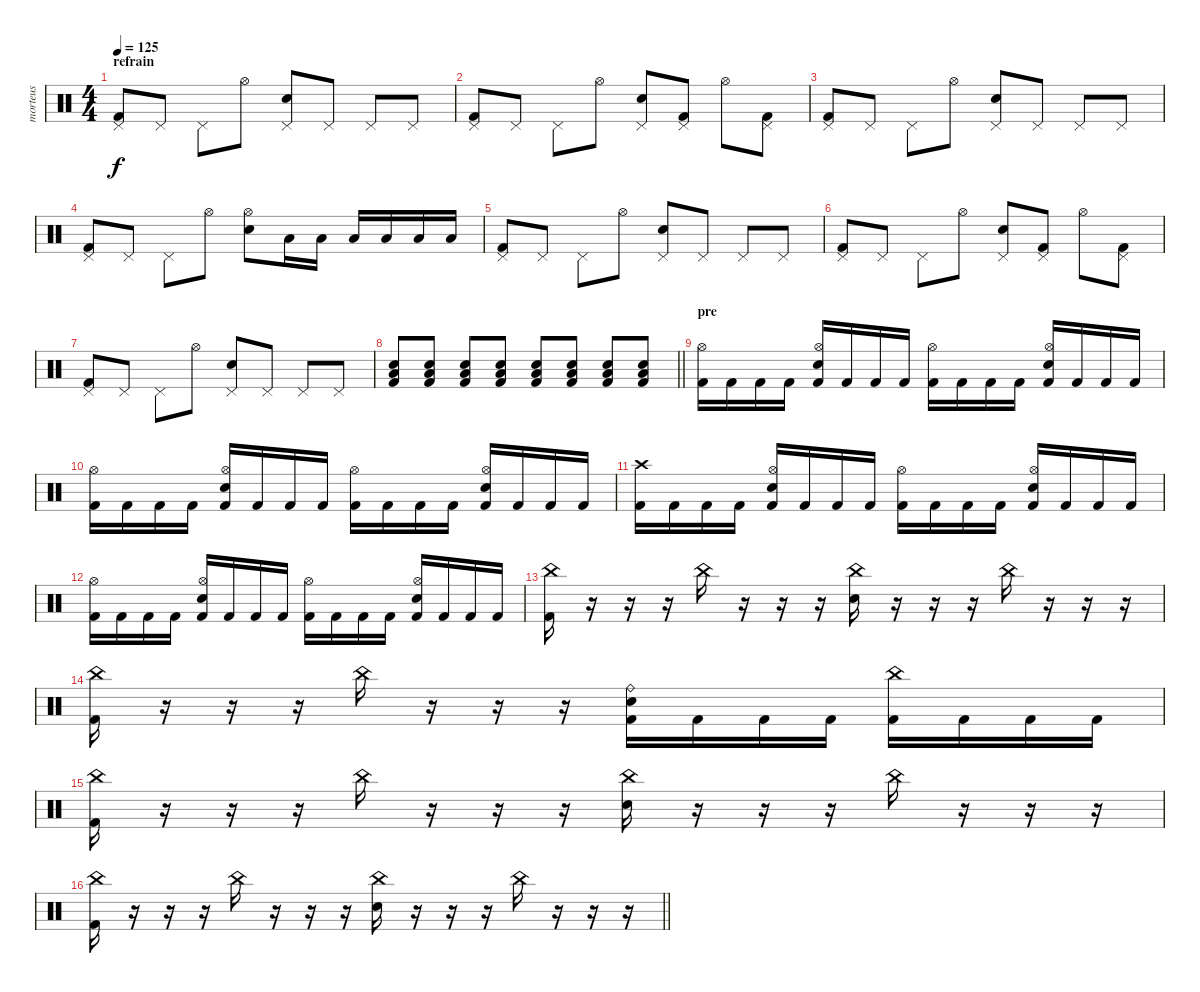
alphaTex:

\track ("morteus" "morteus") {instrument percussion}
\staff {score}
\articulation defaults
\ts (4 4)
\section ("" "refrain")
\tempo 125
\clef neutral
\ks c
("Pedal Hi-Hat (hit)" "Kick (hit) 2").8{dy f} "Pedal Hi-Hat (hit)".8 "Pedal Hi-Hat (hit)".8 "Hi-Hat (open)".8 ("Pedal Hi-Hat (hit)" "Electric Snare (hit)").8 "Pedal Hi-Hat (hit)".8 "Pedal Hi-Hat (hit)".8 "Pedal Hi-Hat (hit)".8 |
("Pedal Hi-Hat (hit)" "Kick (hit) 2").8 "Pedal Hi-Hat (hit)".8 "Pedal Hi-Hat (hit)".8 "Hi-Hat (open)".8 ("Pedal Hi-Hat (hit)" "Electric Snare (hit)").8 ("Pedal Hi-Hat (hit)" "Kick (hit) 2").8 "Hi-Hat (open)".8 ("Pedal Hi-Hat (hit)" "Kick (hit) 2").8 |
("Pedal Hi-Hat (hit)" "Kick (hit) 2").8 "Pedal Hi-Hat (hit)".8 "Pedal Hi-Hat (hit)".8 "Hi-Hat (open)".8 ("Pedal Hi-Hat (hit)" "Electric Snare (hit)").8 "Pedal Hi-Hat (hit)".8 "Pedal Hi-Hat (hit)".8 "Pedal Hi-Hat (hit)".8 |
("Pedal Hi-Hat (hit)" "Kick (hit) 2").8 "Pedal Hi-Hat (hit)".8 "Pedal Hi-Hat (hit)".8 "Hi-Hat (open)".8 ("Hi-Hat (open)" "Electric Snare (hit)").8 "Low Tom (hit)".16 "Low Tom (hit)".16 "Low Tom (hit)".16 "Low Tom (hit)".16 "Low Floor Tom (hit)".16 "Low Floor Tom (hit)".16 |
("Pedal Hi-Hat (hit)" "Kick (hit) 2").8 "Pedal Hi-Hat (hit)".8 "Pedal Hi-Hat (hit)".8 "Hi-Hat (open)".8 ("Pedal Hi-Hat (hit)" "Electric Snare (hit)").8 "Pedal Hi-Hat (hit)".8 "Pedal Hi-Hat (hit)".8 "Pedal Hi-Hat (hit)".8 |
("Pedal Hi-Hat (hit)" "Kick (hit) 2").8 "Pedal Hi-Hat (hit)".8 "Pedal Hi-Hat (hit)".8 "Hi-Hat (open)".8 ("Pedal Hi-Hat (hit)" "Electric Snare (hit)").8 ("Pedal Hi-Hat (hit)" "Kick (hit) 2").8 "Hi-Hat (open)".8 ("Pedal Hi-Hat (hit)" "Kick (hit) 2").8 |
("Pedal Hi-Hat (hit)" "Kick (hit) 2").8 "Pedal Hi-Hat (hit)".8 "Pedal Hi-Hat (hit)".8 "Hi-Hat (open)".8 ("Pedal Hi-Hat (hit)" "Electric Snare (hit)").8 "Pedal Hi-Hat (hit)".8 "Pedal Hi-Hat (hit)".8 "Pedal Hi-Hat (hit)".8 |
\barLineRight lightlight
("Electric Snare (hit)" "Low Tom (hit)" "Kick (hit) 2").8{volume 8} ("Electric Snare (hit)" "Low Tom (hit)" "Kick (hit) 2").8{volume 9} ("Electric Snare (hit)" "Low Tom (hit)" "Kick (hit) 2").8{volume 10} ("Electric Snare (hit)" "Low Tom (hit)" "Kick (hit) 2").8{volume 11} ("Electric Snare (hit)" "Low Tom (hit)" "Kick (hit) 2").8{volume 12} ("Electric Snare (hit)" "Low Tom (hit)" "Kick (hit) 2").8{volume 13} ("Electric Snare (hit)" "Low Tom (hit)" "Kick (hit) 2").8{volume 14} ("Electric Snare (hit)" "Low Tom (hit)" "Kick (hit) 2").8 |
\section ("" "pre ")
("Hi-Hat (open)" "Kick (hit) 2").16 "Kick (hit) 2".16 "Kick (hit) 2".16 "Kick (hit) 2".16 ("Hi-Hat (open)" "Electric Snare (hit)" "Kick (hit) 2").16 "Kick (hit) 2".16 "Kick (hit) 2".16 "Kick (hit) 2".16 ("Hi-Hat (open)" "Kick (hit) 2").16 "Kick (hit) 2".16 "Kick (hit) 2".16 "Kick (hit) 2".16 ("Hi-Hat (open)" "Electric Snare (hit)" "Kick (hit) 2").16 "Kick (hit) 2".16 "Kick (hit) 2".16 "Kick (hit) 2".16 |
("Hi-Hat (open)" "Kick (hit) 2").16 "Kick (hit) 2".16 "Kick (hit) 2".16 "Kick (hit) 2".16 ("Hi-Hat (open)" "Electric Snare (hit)" "Kick (hit) 2").16 "Kick (hit) 2".16 "Kick (hit) 2".16 "Kick (hit) 2".16 ("Hi-Hat (open)" "Kick (hit) 2").16 "Kick (hit) 2".16 "Kick (hit) 2".16 "Kick (hit) 2".16 ("Hi-Hat (open)" "Electric Snare (hit)" "Kick (hit) 2").16 "Kick (hit) 2".16 "Kick (hit) 2".16 "Kick (hit) 2".16 |
("Crash high (hit)" "Kick (hit) 2").16 "Kick (hit) 2".16 "Kick (hit) 2".16 "Kick (hit) 2".16 ("Hi-Hat (open)" "Electric Snare (hit)" "Kick (hit) 2").16 "Kick (hit) 2".16 "Kick (hit) 2".16 "Kick (hit) 2".16 ("Hi-Hat (open)" "Kick (hit) 2").16 "Kick (hit) 2".16 "Kick (hit) 2".16 "Kick (hit) 2".16 ("Hi-Hat (open)" "Electric Snare (hit)" "Kick (hit) 2").16 "Kick (hit) 2".16 "Kick (hit) 2".16 "Kick (hit) 2".16 |
("Hi-Hat (open)" "Kick (hit) 2").16 "Kick (hit) 2".16 "Kick (hit) 2".16 "Kick (hit) 2".16 ("Hi-Hat (open)" "Electric Snare (hit)" "Kick (hit) 2").16 "Kick (hit) 2".16 "Kick (hit) 2".16 "Kick (hit) 2".16 ("Hi-Hat (open)" "Kick (hit) 2").16 "Kick (hit) 2".16 "Kick (hit) 2".16 "Kick (hit) 2".16 ("Hi-Hat (open)" "Electric Snare (hit)" "Kick (hit) 2").16 "Kick (hit) 2".16 "Kick (hit) 2".16 "Kick (hit) 2".16 |
("China (hit)" "Kick (hit) 2").16 r.16 r.16 r.16 "China (hit)".16 r.16 r.16 r.16 ("China (hit)" "Electric Snare (hit)").16 r.16 r.16 r.16 "China (hit)".16 r.16 r.16 r.16 |
("China (hit)" "Kick (hit) 2").16 r.16 r.16 r.16 "China (hit)".16 r.16 r.16 r.16 ("Ride (bell)" "Electric Snare (hit)" "Kick (hit) 2").16 "Kick (hit) 2".16 "Kick (hit) 2".16 "Kick (hit) 2".16 ("China (hit)" "Kick (hit) 2").16 "Kick (hit) 2".16 "Kick (hit) 2".16 "Kick (hit) 2".16 |
("China (hit)" "Kick (hit) 2").16 r.16 r.16 r.16 "China (hit)".16 r.16 r.16 r.16 ("China (hit)" "Electric Snare (hit)").16 r.16 r.16 r.16 "China (hit)".16 r.16 r.16 r.16 |
\barLineRight lightlight
("China (hit)" "Kick (hit) 2").16 r.16 r.16 r.16 "China (hit)".16 r.16 r.16 r.16 ("China (hit)" "Electric Snare (hit)").16 r.16 r.16 r.16 "China (hit)".16 r.16 r.16 r.16
